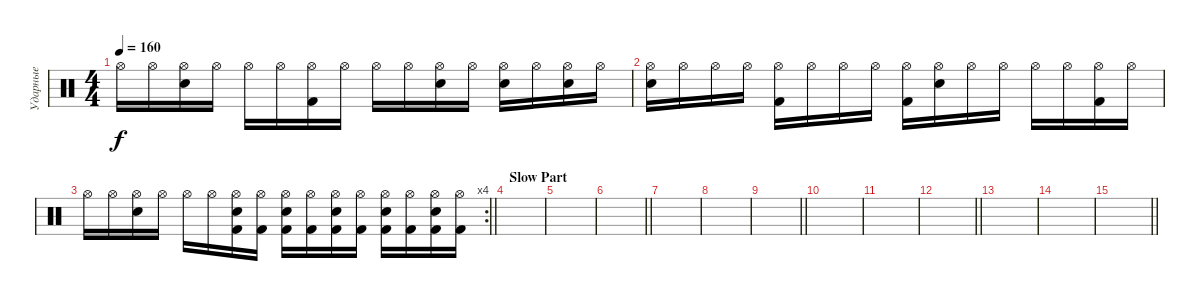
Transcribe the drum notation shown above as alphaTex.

\track ("Ударные" "Ударные") {instrument percussion}
\staff {score}
\articulation defaults
\ts (4 4)
\tempo 160
\clef neutral
\ks c "Hi-Hat (open)".16{dy f} "Hi-Hat (open)".16
("Hi-Hat (open)" "Snare (hit) 2").16 "Hi-Hat (open)".16 "Hi-Hat (open)".16 "Hi-Hat (open)".16 ("Hi-Hat (open)" "Kick (hit) 2").16 "Hi-Hat (open)".16 "Hi-Hat (open)".16 "Hi-Hat (open)".16 ("Hi-Hat (open)" "Snare (hit) 2").16 "Hi-Hat (open)".16 ("Hi-Hat (open)" "Snare (hit) 2").16 "Hi-Hat (open)".16 ("Hi-Hat (open)" "Snare (hit) 2").16 "Hi-Hat (open)".16 |
("Hi-Hat (open)" "Snare (hit) 2").16 "Hi-Hat (open)".16 "Hi-Hat (open)".16 "Hi-Hat (open)".16 ("Hi-Hat (open)" "Kick (hit) 2").16 "Hi-Hat (open)".16 "Hi-Hat (open)".16 "Hi-Hat (open)".16 ("Hi-Hat (open)" "Kick (hit) 2").16 ("Hi-Hat (open)" "Snare (hit) 2").16 "Hi-Hat (open)".16 "Hi-Hat (open)".16 "Hi-Hat (open)".16 "Hi-Hat (open)".16 ("Hi-Hat (open)" "Kick (hit) 2").16 "Hi-Hat (open)".16 |
\rc 4
\barLineRight lightlight "Hi-Hat (open)".16 "Hi-Hat (open)".16
("Hi-Hat (open)" "Snare (hit) 2").16 "Hi-Hat (open)".16 "Hi-Hat (open)".16 "Hi-Hat (open)".16 ("Hi-Hat (open)" "Snare (hit) 2" "Kick (hit) 2").16 ("Hi-Hat (open)" "Kick (hit) 2").16 ("Hi-Hat (open)" "Snare (hit) 2" "Kick (hit) 2").16 ("Hi-Hat (open)" "Kick (hit) 2").16 ("Hi-Hat (open)" "Snare (hit) 2" "Kick (hit) 2").16 ("Hi-Hat (open)" "Kick (hit) 2").16 ("Hi-Hat (open)" "Snare (hit) 2" "Kick (hit) 2").16 ("Hi-Hat (open)" "Kick (hit) 2").16 ("Hi-Hat (open)" "Snare (hit) 2" "Kick (hit) 2").16 ("Hi-Hat (open)" "Kick (hit) 2").16 |
\section ("" "Slow Part")
|
|
\barLineRight lightlight
|
|
|
\barLineRight lightlight
|
|
|
\barLineRight lightlight
|
|
|
\barLineRight lightlight
